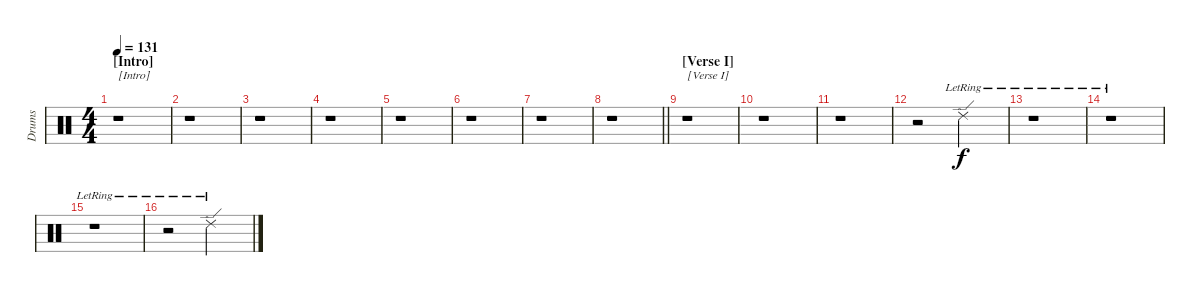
\track ("Drums" "Drums") {instrument percussion}
\staff {score}
\articulation defaults
\ts (4 4)
\section ("" "[Intro]")
\tempo 131
\clef neutral
\ks c
r.1{txt "[Intro]" dy f} |
r.1 |
r.1 |
r.1 |
r.1 |
r.1 |
r.1 |
\barLineRight lightlight
r.1 |
\section ("" "[Verse I]")
r.1{txt "[Verse I]"} |
r.1 |
r.1 |
r.2 "Ride (edge) 2"{lr}.2 |
r.1 |
r.1 |
r.1 |
r.2 "Ride (edge) 2"{lr}.2
